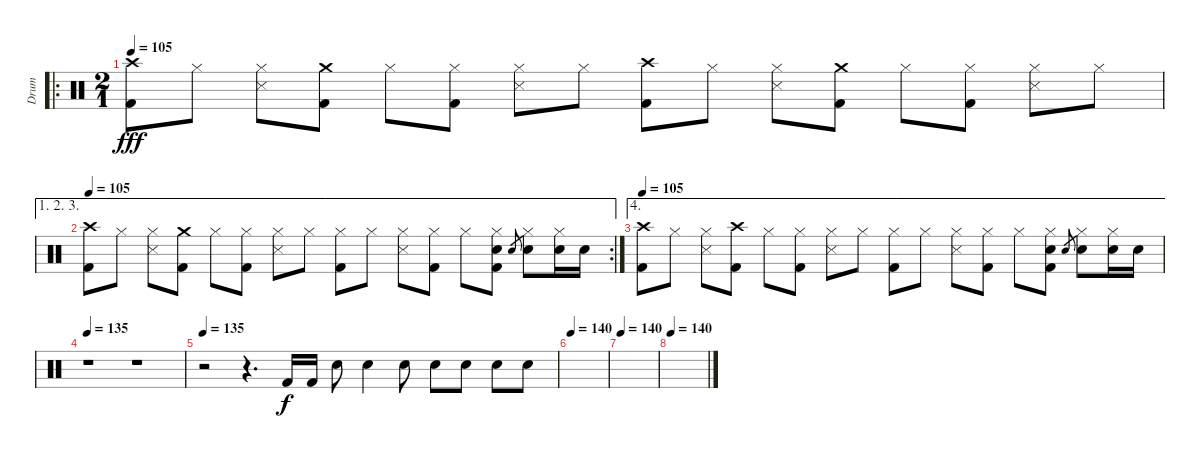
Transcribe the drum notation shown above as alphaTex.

\track ("Drum" "Drum") {instrument percussion}
\staff {score}
\articulation defaults
\ro
\ts (2 1)
\tempo 105
\clef neutral
\ks c
("Crash high (hit)" "Kick (hit) 2").8{dy fff} "Hi-Hat (closed)".8 ("Hi-Hat (closed)" "Snare (side stick) 3").8 ("Crash medium (hit)" "Kick (hit) 2").8 "Hi-Hat (closed)".8 ("Hi-Hat (closed)" "Kick (hit) 2").8 ("Hi-Hat (closed)" "Snare (side stick) 3").8 "Hi-Hat (closed)".8 ("Crash high (hit)" "Kick (hit) 2").8 "Hi-Hat (closed)".8 ("Hi-Hat (closed)" "Snare (side stick) 3").8 ("Crash medium (hit)" "Kick (hit) 2").8 "Hi-Hat (closed)".8 ("Hi-Hat (closed)" "Kick (hit) 2").8 ("Hi-Hat (closed)" "Snare (side stick) 3").8 "Hi-Hat (closed)".8 |
\ae (1 2 3)
\rc 2
\tempo 105
("Crash high (hit)" "Kick (hit) 2").8 "Hi-Hat (closed)".8 ("Hi-Hat (closed)" "Snare (side stick) 3").8 ("Crash medium (hit)" "Kick (hit) 2").8 "Hi-Hat (closed)".8 ("Hi-Hat (closed)" "Kick (hit) 2").8 ("Hi-Hat (closed)" "Snare (side stick) 3").8 "Hi-Hat (closed)".8 ("Hi-Hat (closed)" "Kick (hit) 2").8 "Hi-Hat (closed)".8 ("Hi-Hat (closed)" "Snare (side stick) 3").8 ("Hi-Hat (closed)" "Kick (hit) 2").8 "Hi-Hat (closed)".8 ("Hi-Hat (closed)" "Snare (hit) 2" "Kick (hit) 2").8 "Snare (hit) 2".8{gr} ("Hi-Hat (closed)" "Snare (hit) 2").8 ("Hi-Hat (closed)" "Snare (hit) 2").16 "Snare (hit) 2".16 |
\ae 4
\tempo 105
("Crash high (hit)" "Kick (hit) 2").8 "Hi-Hat (closed)".8 ("Hi-Hat (closed)" "Snare (side stick) 3").8 ("Crash high (hit)" "Kick (hit) 2").8 "Hi-Hat (closed)".8 ("Hi-Hat (closed)" "Kick (hit) 2").8 ("Hi-Hat (closed)" "Snare (side stick) 3").8 "Hi-Hat (closed)".8 ("Hi-Hat (closed)" "Kick (hit) 2").8 "Hi-Hat (closed)".8 ("Hi-Hat (closed)" "Snare (side stick) 3").8 ("Hi-Hat (closed)" "Kick (hit) 2").8 "Hi-Hat (closed)".8 ("Hi-Hat (closed)" "Snare (hit) 2" "Kick (hit) 2").8 "Snare (hit) 2".8{gr} ("Hi-Hat (closed)" "Snare (hit) 2").8 ("Hi-Hat (closed)" "Snare (hit) 2").16 "Snare (hit) 2".16 |
\tempo 135
r.1 r.1 |
\tempo 135
r.2 r.4{d} "Kick (hit) 2".16{dy f} "Kick (hit) 2".16 "Snare (hit) 2".8 "Snare (hit) 2".4 "Snare (hit) 2".8 "Snare (hit) 2".8 "Snare (hit) 2".8 "Snare (hit) 2".8 "Snare (hit) 2".8 |
\tempo 140
|
\tempo 140
|
\tempo 140
